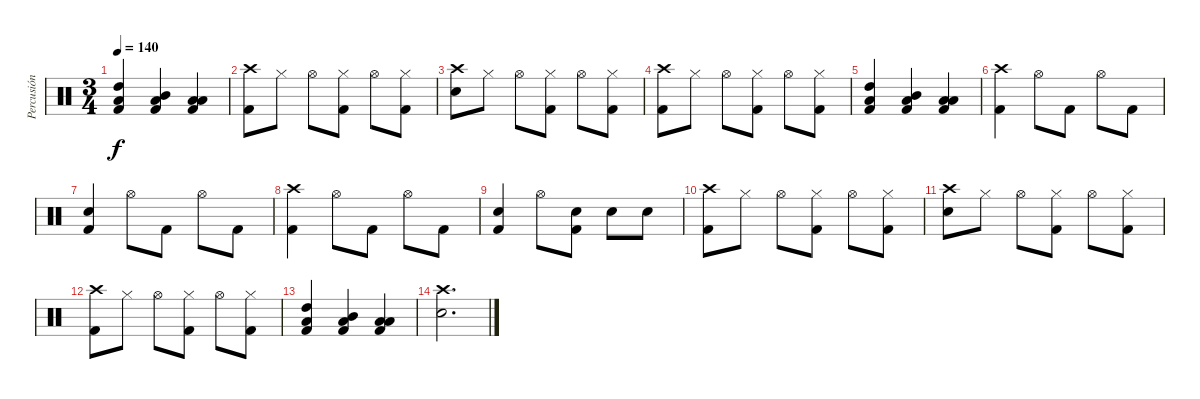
\track ("Percusión" "Percusión") {instrument percussion}
\staff {score}
\articulation defaults
\ts (3 4)
\tempo 140
\clef neutral
\ks c
("High Tom (hit)" "Low Floor Tom (hit)" "Kick (hit) 2").4{dy f} ("Mid Tom (hit)" "Low Floor Tom (hit)" "Kick (hit) 2").4 ("Low Tom (hit)" "Low Floor Tom (hit)" "Kick (hit) 2").4 |
("Crash high (hit)" "Kick (hit) 2").8 "Hi-Hat (closed)".8 "Hi-Hat (open)".8 ("Hi-Hat (closed)" "Kick (hit) 2").8 "Hi-Hat (open)".8 ("Hi-Hat (closed)" "Kick (hit) 2").8 |
("Crash high (hit)" "Electric Snare (hit)").8 "Hi-Hat (closed)".8 "Hi-Hat (open)".8 ("Hi-Hat (closed)" "Kick (hit) 2").8 "Hi-Hat (open)".8 ("Hi-Hat (closed)" "Kick (hit) 2").8 |
("Crash high (hit)" "Kick (hit) 2").8 "Hi-Hat (closed)".8 "Hi-Hat (open)".8 ("Hi-Hat (closed)" "Kick (hit) 2").8 "Hi-Hat (open)".8 ("Hi-Hat (closed)" "Kick (hit) 2").8 |
("High Tom (hit)" "Low Floor Tom (hit)" "Kick (hit) 2").4 ("Mid Tom (hit)" "Low Floor Tom (hit)" "Kick (hit) 2").4 ("Low Tom (hit)" "Low Floor Tom (hit)" "Kick (hit) 2").4 |
("Crash high (hit)" "Kick (hit) 2").4 "Hi-Hat (open)".8 "Kick (hit) 2".8 "Hi-Hat (open)".8 "Kick (hit) 2".8 |
("Electric Snare (hit)" "Kick (hit) 2").4 "Hi-Hat (open)".8 "Kick (hit) 2".8 "Hi-Hat (open)".8 "Kick (hit) 2".8 |
("Crash high (hit)" "Kick (hit) 2").4 "Hi-Hat (open)".8 "Kick (hit) 2".8 "Hi-Hat (open)".8 "Kick (hit) 2".8 |
("Electric Snare (hit)" "Kick (hit) 2").4 "Hi-Hat (open)".8 ("Electric Snare (hit)" "Kick (hit) 2").8 "Electric Snare (hit)".8 "Electric Snare (hit)".8 |
("Crash high (hit)" "Kick (hit) 2").8 "Hi-Hat (closed)".8 "Hi-Hat (open)".8 ("Hi-Hat (closed)" "Kick (hit) 2").8 "Hi-Hat (open)".8 ("Hi-Hat (closed)" "Kick (hit) 2").8 |
("Crash high (hit)" "Electric Snare (hit)").8 "Hi-Hat (closed)".8 "Hi-Hat (open)".8 ("Hi-Hat (closed)" "Kick (hit) 2").8 "Hi-Hat (open)".8 ("Hi-Hat (closed)" "Kick (hit) 2").8 |
("Crash high (hit)" "Kick (hit) 2").8 "Hi-Hat (closed)".8 "Hi-Hat (open)".8 ("Hi-Hat (closed)" "Kick (hit) 2").8 "Hi-Hat (open)".8 ("Hi-Hat (closed)" "Kick (hit) 2").8 |
("High Tom (hit)" "Low Floor Tom (hit)" "Kick (hit) 2").4 ("Mid Tom (hit)" "Low Floor Tom (hit)" "Kick (hit) 2").4 ("Low Tom (hit)" "Low Floor Tom (hit)" "Kick (hit) 2").4 |
("Crash high (hit)" "Electric Snare (hit)").2{d}
